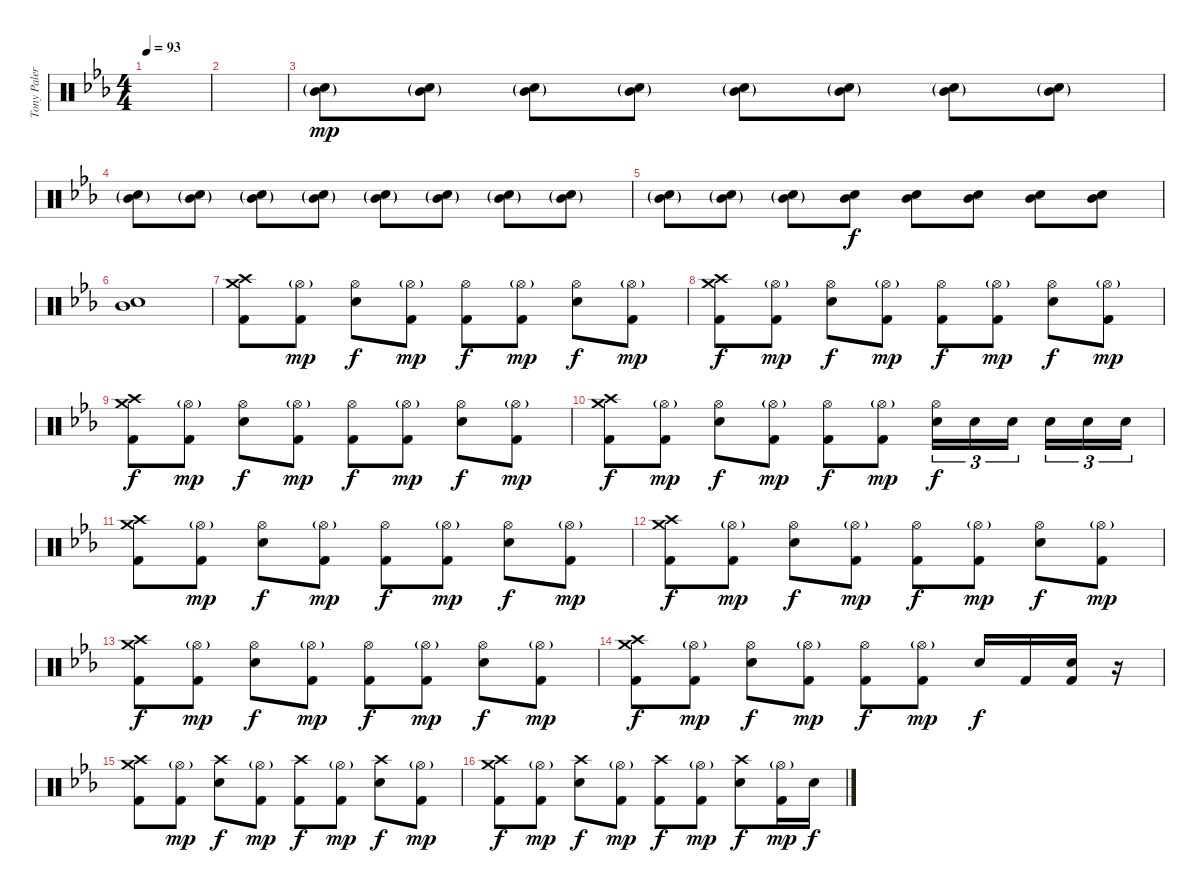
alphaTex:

\track ("Tony Palermo" "Tony Paler") {instrument percussion}
\staff {score}
\articulation defaults
\ts (4 4)
\tempo 93
\clef neutral
\ks cminor
|
|
("Electric Snare (hit)"{g} "Mid Tom (hit)"{g}).8{dy mp} ("Electric Snare (hit)"{g} "Mid Tom (hit)"{g}).8 ("Electric Snare (hit)"{g} "Mid Tom (hit)"{g}).8 ("Electric Snare (hit)"{g} "Mid Tom (hit)"{g}).8 ("Electric Snare (hit)"{g} "Mid Tom (hit)"{g}).8 ("Electric Snare (hit)"{g} "Mid Tom (hit)"{g}).8 ("Electric Snare (hit)"{g} "Mid Tom (hit)"{g}).8 ("Electric Snare (hit)"{g} "Mid Tom (hit)"{g}).8 |
("Electric Snare (hit)"{g} "Mid Tom (hit)"{g}).8 ("Electric Snare (hit)"{g} "Mid Tom (hit)"{g}).8 ("Electric Snare (hit)"{g} "Mid Tom (hit)"{g}).8 ("Electric Snare (hit)"{g} "Mid Tom (hit)"{g}).8 ("Electric Snare (hit)"{g} "Mid Tom (hit)"{g}).8 ("Electric Snare (hit)"{g} "Mid Tom (hit)"{g}).8 ("Electric Snare (hit)"{g} "Mid Tom (hit)"{g}).8 ("Electric Snare (hit)"{g} "Mid Tom (hit)"{g}).8 |
("Electric Snare (hit)"{g} "Mid Tom (hit)"{g}).8 ("Electric Snare (hit)"{g} "Mid Tom (hit)"{g}).8 ("Electric Snare (hit)"{g} "Mid Tom (hit)"{g}).8 ("Electric Snare (hit)" "Mid Tom (hit)").8{dy f} ("Electric Snare (hit)" "Mid Tom (hit)").8 ("Electric Snare (hit)" "Mid Tom (hit)").8 ("Electric Snare (hit)" "Mid Tom (hit)").8 ("Electric Snare (hit)" "Mid Tom (hit)").8 |
("Electric Snare (hit)" "Mid Tom (hit)").1 |
("Crash high (hit)" "Crash medium (hit)" "Kick (hit) 2").8 ("Hi-Hat (open)"{g} "Kick (hit) 2").8{dy mp} ("Hi-Hat (open)" "Electric Snare (hit)").8{dy f} ("Hi-Hat (open)"{g} "Kick (hit) 2").8{dy mp} ("Hi-Hat (open)" "Kick (hit) 2").8{dy f} ("Hi-Hat (open)"{g} "Kick (hit) 2").8{dy mp} ("Hi-Hat (open)" "Electric Snare (hit)").8{dy f} ("Hi-Hat (open)"{g} "Kick (hit) 2").8{dy mp} |
("Crash high (hit)" "Crash medium (hit)" "Kick (hit) 2").8{dy f} ("Hi-Hat (open)"{g} "Kick (hit) 2").8{dy mp} ("Hi-Hat (open)" "Electric Snare (hit)").8{dy f} ("Hi-Hat (open)"{g} "Kick (hit) 2").8{dy mp} ("Hi-Hat (open)" "Kick (hit) 2").8{dy f} ("Hi-Hat (open)"{g} "Kick (hit) 2").8{dy mp} ("Hi-Hat (open)" "Electric Snare (hit)").8{dy f} ("Hi-Hat (open)"{g} "Kick (hit) 2").8{dy mp} |
("Crash high (hit)" "Crash medium (hit)" "Kick (hit) 2").8{dy f} ("Hi-Hat (open)"{g} "Kick (hit) 2").8{dy mp} ("Hi-Hat (open)" "Electric Snare (hit)").8{dy f} ("Hi-Hat (open)"{g} "Kick (hit) 2").8{dy mp} ("Hi-Hat (open)" "Kick (hit) 2").8{dy f} ("Hi-Hat (open)"{g} "Kick (hit) 2").8{dy mp} ("Hi-Hat (open)" "Electric Snare (hit)").8{dy f} ("Hi-Hat (open)"{g} "Kick (hit) 2").8{dy mp} |
("Crash high (hit)" "Crash medium (hit)" "Kick (hit) 2").8{dy f} ("Hi-Hat (open)"{g} "Kick (hit) 2").8{dy mp} ("Hi-Hat (open)" "Electric Snare (hit)").8{dy f} ("Hi-Hat (open)"{g} "Kick (hit) 2").8{dy mp} ("Hi-Hat (open)" "Kick (hit) 2").8{dy f} ("Hi-Hat (open)"{g} "Kick (hit) 2").8{dy mp} ("Hi-Hat (open)" "Electric Snare (hit)").16{tu (3 2) dy f} "Electric Snare (hit)".16{tu (3 2)} "Electric Snare (hit)".16{tu (3 2) beam splitsecondary} "Electric Snare (hit)".16{tu (3 2)} "Electric Snare (hit)".16{tu (3 2)} "Electric Snare (hit)".16{tu (3 2)} |
("Crash high (hit)" "Crash medium (hit)" "Kick (hit) 2").8 ("Hi-Hat (open)"{g} "Kick (hit) 2").8{dy mp} ("Hi-Hat (open)" "Electric Snare (hit)").8{dy f} ("Hi-Hat (open)"{g} "Kick (hit) 2").8{dy mp} ("Hi-Hat (open)" "Kick (hit) 2").8{dy f} ("Hi-Hat (open)"{g} "Kick (hit) 2").8{dy mp} ("Hi-Hat (open)" "Electric Snare (hit)").8{dy f} ("Hi-Hat (open)"{g} "Kick (hit) 2").8{dy mp} |
("Crash high (hit)" "Crash medium (hit)" "Kick (hit) 2").8{dy f} ("Hi-Hat (open)"{g} "Kick (hit) 2").8{dy mp} ("Hi-Hat (open)" "Electric Snare (hit)").8{dy f} ("Hi-Hat (open)"{g} "Kick (hit) 2").8{dy mp} ("Hi-Hat (open)" "Kick (hit) 2").8{dy f} ("Hi-Hat (open)"{g} "Kick (hit) 2").8{dy mp} ("Hi-Hat (open)" "Electric Snare (hit)").8{dy f} ("Hi-Hat (open)"{g} "Kick (hit) 2").8{dy mp} |
("Crash high (hit)" "Crash medium (hit)" "Kick (hit) 2").8{dy f} ("Hi-Hat (open)"{g} "Kick (hit) 2").8{dy mp} ("Hi-Hat (open)" "Electric Snare (hit)").8{dy f} ("Hi-Hat (open)"{g} "Kick (hit) 2").8{dy mp} ("Hi-Hat (open)" "Kick (hit) 2").8{dy f} ("Hi-Hat (open)"{g} "Kick (hit) 2").8{dy mp} ("Hi-Hat (open)" "Electric Snare (hit)").8{dy f} ("Hi-Hat (open)"{g} "Kick (hit) 2").8{dy mp} |
("Crash high (hit)" "Crash medium (hit)" "Kick (hit) 2").8{dy f} ("Hi-Hat (open)"{g} "Kick (hit) 2").8{dy mp} ("Hi-Hat (open)" "Electric Snare (hit)").8{dy f} ("Hi-Hat (open)"{g} "Kick (hit) 2").8{dy mp} ("Hi-Hat (open)" "Kick (hit) 2").8{dy f} ("Hi-Hat (open)"{g} "Kick (hit) 2").8{dy mp} "Electric Snare (hit)".16{dy f} "Kick (hit) 2".16 ("Electric Snare (hit)" "Kick (hit) 2").16 r.16 |
("Crash high (hit)" "Crash medium (hit)" "Kick (hit) 2").8 ("Hi-Hat (open)"{g} "Kick (hit) 2").8{dy mp} ("Crash high (hit)" "Electric Snare (hit)").8{dy f} ("Hi-Hat (open)"{g} "Kick (hit) 2").8{dy mp} ("Crash high (hit)" "Kick (hit) 2").8{dy f} ("Hi-Hat (open)"{g} "Kick (hit) 2").8{dy mp} ("Crash high (hit)" "Electric Snare (hit)").8{dy f} ("Hi-Hat (open)"{g} "Kick (hit) 2").8{dy mp} |
("Crash high (hit)" "Crash medium (hit)" "Kick (hit) 2").8{dy f} ("Hi-Hat (open)"{g} "Kick (hit) 2").8{dy mp} ("Crash high (hit)" "Electric Snare (hit)").8{dy f} ("Hi-Hat (open)"{g} "Kick (hit) 2").8{dy mp} ("Crash high (hit)" "Kick (hit) 2").8{dy f} ("Hi-Hat (open)"{g} "Kick (hit) 2").8{dy mp} ("Crash high (hit)" "Electric Snare (hit)").8{dy f} ("Hi-Hat (open)"{g} "Kick (hit) 2").16{dy mp} "Electric Snare (hit)".16{dy f}
